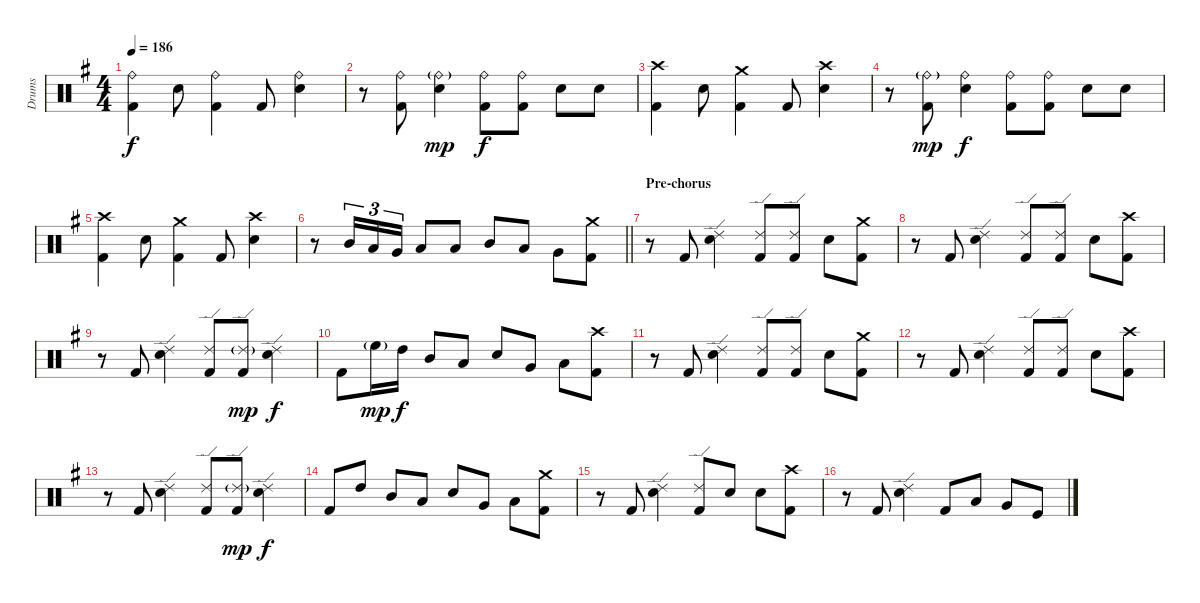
\track ("Drums" "Drums") {instrument percussion}
\staff {score}
\articulation defaults
\ts (4 4)
\tempo 186
\clef neutral
\ks g
("Ride (bell)" "Kick (hit) 2").4{dy f} "Snare (hit) 2".8 ("Ride (bell)" "Kick (hit) 2").4 "Kick (hit) 2".8 ("Ride (bell)" "Snare (hit) 2").4 |
r.8 ("Ride (bell)" "Kick (hit) 2").8 ("Ride (bell)"{g} "Snare (hit) 2").4{dy mp} ("Ride (bell)" "Kick (hit) 2").8{dy f} ("Ride (bell)" "Kick (hit) 2").8 "Snare (hit) 2".8 "Snare (hit) 2".8 |
("Crash high (hit)" "Kick (hit) 2").4 "Snare (hit) 2".8 ("Crash medium (hit)" "Kick (hit) 2").4 "Kick (hit) 2".8 ("Crash high (hit)" "Snare (hit) 2").4 |
r.8 ("Ride (bell)"{g} "Kick (hit) 2").8{dy mp} ("Ride (bell)" "Snare (hit) 2").4{dy f} ("Ride (bell)" "Kick (hit) 2").8 ("Ride (bell)" "Kick (hit) 2").8 "Snare (hit) 2".8 "Snare (hit) 2".8 |
("Crash high (hit)" "Kick (hit) 2").4 "Snare (hit) 2".8 ("Crash medium (hit)" "Kick (hit) 2").4 "Kick (hit) 2".8 ("Crash high (hit)" "Snare (hit) 2").4 |
\barLineRight lightlight
r.8 "Mid Tom (hit)".16{tu (3 2)} "Low Tom (hit)".16{tu (3 2)} "Very Low Tom (hit)".16{tu (3 2)} "Low Floor Tom (hit)".8 "Low Floor Tom (hit)".8 "Mid Tom (hit)".8 "Low Tom (hit)".8 "Very Low Tom (hit)".8 ("Crash medium (hit)" "Kick (hit) 2").8 |
\section ("" "Pre-chorus")
r.8 "Kick (hit) 2".8 ("Ride (edge) 2" "Snare (hit) 2").4 ("Ride (edge) 2" "Kick (hit) 2").8 ("Ride (edge) 2" "Kick (hit) 2").8 "Snare (hit) 2".8 ("Crash medium (hit)" "Kick (hit) 2").8 |
r.8 "Kick (hit) 2".8 ("Ride (edge) 2" "Snare (hit) 2").4 ("Ride (edge) 2" "Kick (hit) 2").8 ("Ride (edge) 2" "Kick (hit) 2").8 "Snare (hit) 2".8 ("Crash high (hit)" "Kick (hit) 2").8 |
r.8 "Kick (hit) 2".8 ("Ride (edge) 2" "Snare (hit) 2").4 ("Ride (edge) 2" "Kick (hit) 2").8 ("Ride (edge) 2"{g} "Kick (hit) 2").8{dy mp} ("Ride (edge) 2" "Snare (hit) 2").4{dy f} |
"Kick (hit) 2".8 "High Floor Tom (hit)"{g}.16{dy mp} "High Tom (hit)".16{dy f} "Mid Tom (hit)".8 "Low Tom (hit)".8 "Snare (hit) 2".8 "Very Low Tom (hit)".8 "Low Floor Tom (hit)".8 ("Crash high (hit)" "Kick (hit) 2").8 |
r.8 "Kick (hit) 2".8 ("Ride (edge) 2" "Snare (hit) 2").4 ("Ride (edge) 2" "Kick (hit) 2").8 ("Ride (edge) 2" "Kick (hit) 2").8 "Snare (hit) 2".8 ("Crash medium (hit)" "Kick (hit) 2").8 |
r.8 "Kick (hit) 2".8 ("Ride (edge) 2" "Snare (hit) 2").4 ("Ride (edge) 2" "Kick (hit) 2").8 ("Ride (edge) 2" "Kick (hit) 2").8 "Snare (hit) 2".8 ("Crash high (hit)" "Kick (hit) 2").8 |
r.8 "Kick (hit) 2".8 ("Ride (edge) 2" "Snare (hit) 2").4 ("Ride (edge) 2" "Kick (hit) 2").8 ("Ride (edge) 2"{g} "Kick (hit) 2").8{dy mp} ("Ride (edge) 2" "Snare (hit) 2").4{dy f} |
"Kick (hit) 2".8 "High Tom (hit)".8 "Mid Tom (hit)".8 "Low Tom (hit)".8 "Snare (hit) 2".8 "Very Low Tom (hit)".8 "Low Floor Tom (hit)".8 ("Crash medium (hit)" "Kick (hit) 2").8 |
r.8 "Kick (hit) 2".8 ("Ride (edge) 2" "Snare (hit) 2").4 ("Ride (edge) 2" "Kick (hit) 2").8 "Snare (hit) 2".8 "Snare (hit) 2".8 ("Crash high (hit)" "Kick (hit) 2").8 |
r.8 "Kick (hit) 2".8 ("Ride (edge) 2" "Snare (hit) 2").4 "Kick (hit) 2".8 "Low Tom (hit)".8 "Very Low Tom (hit)".8 "Kick (hit)".8
